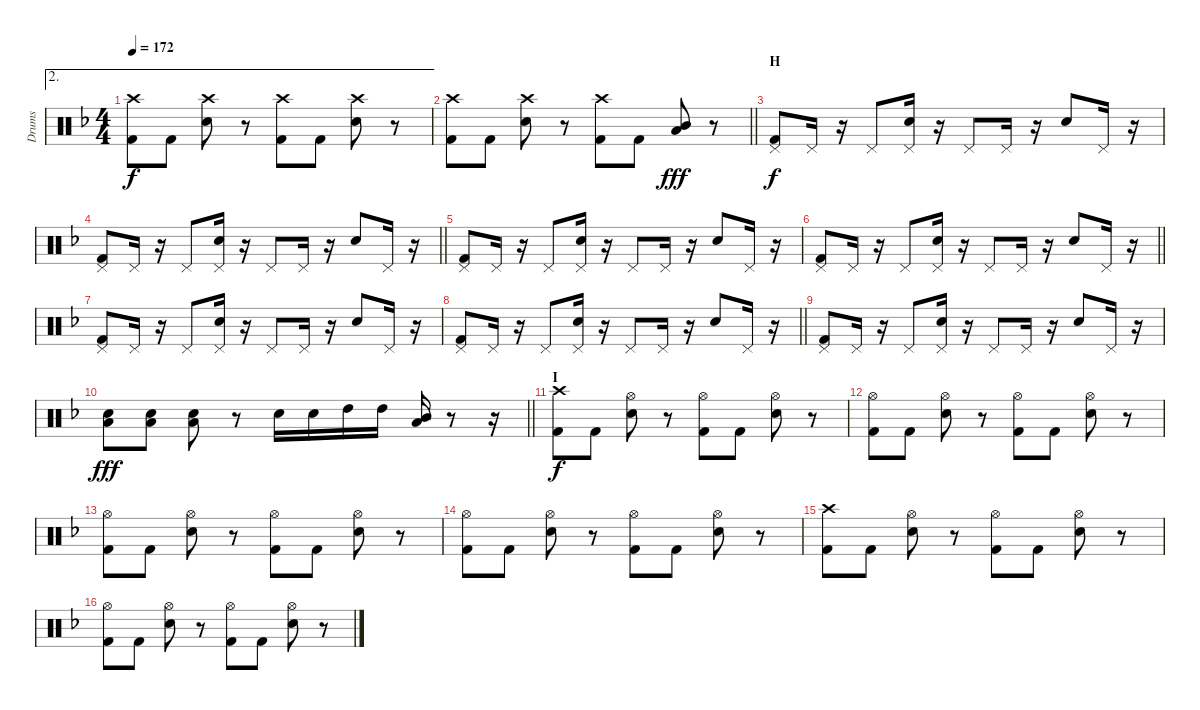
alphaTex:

\track ("Drums" "Drums") {instrument percussion}
\staff {score}
\articulation defaults
\ae 2
\ts (4 4)
\tempo 172
\clef neutral
\ks f
("Crash high (hit)" "Kick (hit) 2").8{dy f} "Kick (hit) 2".8 ("Crash high (hit)" "Electric Snare (hit)").8 r.8 ("Crash high (hit)" "Kick (hit) 2").8 "Kick (hit) 2".8 ("Crash high (hit)" "Electric Snare (hit)").8 r.8 |
\barLineRight lightlight
("Crash high (hit)" "Kick (hit) 2").8 "Kick (hit) 2".8 ("Crash high (hit)" "Electric Snare (hit)").8 r.8 ("Crash high (hit)" "Kick (hit) 2").8 "Kick (hit) 2".8 ("Low Tom (hit)" "Mid Tom (hit)").8{dy fff} r.8 |
\section ("" "H")
("Pedal Hi-Hat (hit)" "Kick (hit) 2").8{dy f} "Pedal Hi-Hat (hit)".16 r.16 "Pedal Hi-Hat (hit)".8 ("Pedal Hi-Hat (hit)" "Electric Snare (hit)").16 r.16 "Pedal Hi-Hat (hit)".8 "Pedal Hi-Hat (hit)".16 r.16 "Electric Snare (hit)".8 "Pedal Hi-Hat (hit)".16 r.16 |
\barLineRight lightlight
("Pedal Hi-Hat (hit)" "Kick (hit) 2").8 "Pedal Hi-Hat (hit)".16 r.16 "Pedal Hi-Hat (hit)".8 ("Pedal Hi-Hat (hit)" "Electric Snare (hit)").16 r.16 "Pedal Hi-Hat (hit)".8 "Pedal Hi-Hat (hit)".16 r.16 "Electric Snare (hit)".8 "Pedal Hi-Hat (hit)".16 r.16 |
("Pedal Hi-Hat (hit)" "Kick (hit) 2").8 "Pedal Hi-Hat (hit)".16 r.16 "Pedal Hi-Hat (hit)".8 ("Pedal Hi-Hat (hit)" "Electric Snare (hit)").16 r.16 "Pedal Hi-Hat (hit)".8 "Pedal Hi-Hat (hit)".16 r.16 "Electric Snare (hit)".8 "Pedal Hi-Hat (hit)".16 r.16 |
\barLineRight lightlight
("Pedal Hi-Hat (hit)" "Kick (hit) 2").8 "Pedal Hi-Hat (hit)".16 r.16 "Pedal Hi-Hat (hit)".8 ("Pedal Hi-Hat (hit)" "Electric Snare (hit)").16 r.16 "Pedal Hi-Hat (hit)".8 "Pedal Hi-Hat (hit)".16 r.16 "Electric Snare (hit)".8 "Pedal Hi-Hat (hit)".16 r.16 |
("Pedal Hi-Hat (hit)" "Kick (hit) 2").8 "Pedal Hi-Hat (hit)".16 r.16 "Pedal Hi-Hat (hit)".8 ("Pedal Hi-Hat (hit)" "Electric Snare (hit)").16 r.16 "Pedal Hi-Hat (hit)".8 "Pedal Hi-Hat (hit)".16 r.16 "Electric Snare (hit)".8 "Pedal Hi-Hat (hit)".16 r.16 |
\barLineRight lightlight
("Pedal Hi-Hat (hit)" "Kick (hit) 2").8 "Pedal Hi-Hat (hit)".16 r.16 "Pedal Hi-Hat (hit)".8 ("Pedal Hi-Hat (hit)" "Electric Snare (hit)").16 r.16 "Pedal Hi-Hat (hit)".8 "Pedal Hi-Hat (hit)".16 r.16 "Electric Snare (hit)".8 "Pedal Hi-Hat (hit)".16 r.16 |
("Pedal Hi-Hat (hit)" "Kick (hit) 2").8 "Pedal Hi-Hat (hit)".16 r.16 "Pedal Hi-Hat (hit)".8 ("Pedal Hi-Hat (hit)" "Electric Snare (hit)").16 r.16 "Pedal Hi-Hat (hit)".8 "Pedal Hi-Hat (hit)".16 r.16 "Electric Snare (hit)".8 "Pedal Hi-Hat (hit)".16 r.16 |
\barLineRight lightlight
("Low Tom (hit)" "Electric Snare (hit)").8{dy fff} ("Low Tom (hit)" "Electric Snare (hit)").8 ("Low Tom (hit)" "Electric Snare (hit)").8 r.8 "Electric Snare (hit)".16 "Electric Snare (hit)".16 "High Tom (hit)".16 "High Tom (hit)".16 ("Mid Tom (hit)" "Low Tom (hit)").16 r.8 r.16 |
\section ("" "I")
("Crash high (hit)" "Kick (hit) 2").8{dy f} "Kick (hit) 2".8 ("Hi-Hat (open)" "Electric Snare (hit)").8 r.8 ("Hi-Hat (open)" "Kick (hit) 2").8 "Kick (hit) 2".8 ("Hi-Hat (open)" "Electric Snare (hit)").8 r.8 |
("Hi-Hat (open)" "Kick (hit) 2").8 "Kick (hit) 2".8 ("Hi-Hat (open)" "Electric Snare (hit)").8 r.8 ("Hi-Hat (open)" "Kick (hit) 2").8 "Kick (hit) 2".8 ("Hi-Hat (open)" "Electric Snare (hit)").8 r.8 |
("Hi-Hat (open)" "Kick (hit) 2").8 "Kick (hit) 2".8 ("Hi-Hat (open)" "Electric Snare (hit)").8 r.8 ("Hi-Hat (open)" "Kick (hit) 2").8 "Kick (hit) 2".8 ("Hi-Hat (open)" "Electric Snare (hit)").8 r.8 |
("Hi-Hat (open)" "Kick (hit) 2").8 "Kick (hit) 2".8 ("Hi-Hat (open)" "Electric Snare (hit)").8 r.8 ("Hi-Hat (open)" "Kick (hit) 2").8 "Kick (hit) 2".8 ("Hi-Hat (open)" "Electric Snare (hit)").8 r.8 |
("Crash high (hit)" "Kick (hit) 2").8 "Kick (hit) 2".8 ("Hi-Hat (open)" "Electric Snare (hit)").8 r.8 ("Hi-Hat (open)" "Kick (hit) 2").8 "Kick (hit) 2".8 ("Hi-Hat (open)" "Electric Snare (hit)").8 r.8 |
("Hi-Hat (open)" "Kick (hit) 2").8 "Kick (hit) 2".8 ("Hi-Hat (open)" "Electric Snare (hit)").8 r.8 ("Hi-Hat (open)" "Kick (hit) 2").8 "Kick (hit) 2".8 ("Hi-Hat (open)" "Electric Snare (hit)").8 r.8
